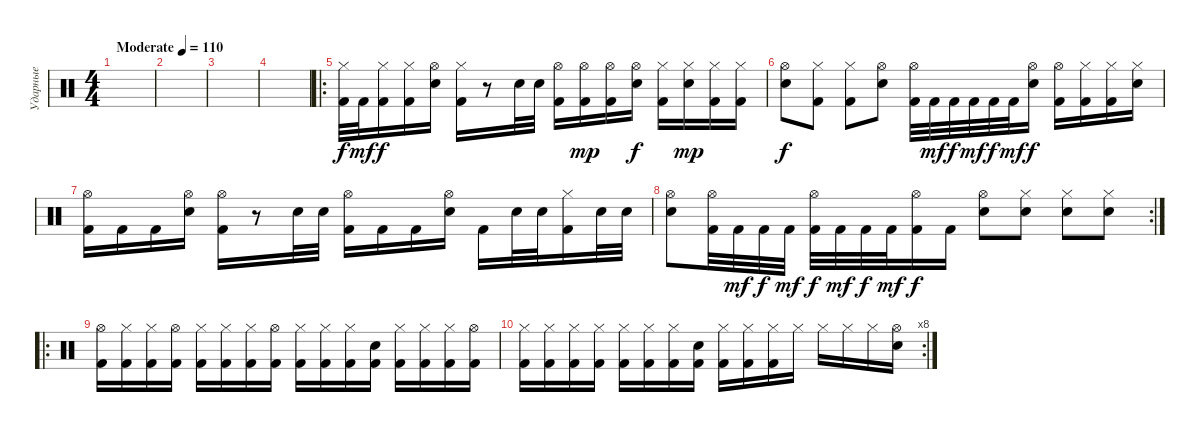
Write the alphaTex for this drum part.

\track ("Ударные" "Ударные") {instrument percussion}
\staff {score}
\articulation defaults
\ts (4 4)
\tempo (110 "Moderate")
\clef neutral
\ks c
|
|
|
|
\ro
("Hi-Hat (closed)" "Kick (hit) 2").32 "Kick (hit) 2".32{dy mf} ("Hi-Hat (closed)" "Kick (hit) 2").16{dy f} ("Hi-Hat (closed)" "Kick (hit) 2").16 ("Hi-Hat (open)" "Electric Snare (hit)").16 ("Hi-Hat (closed)" "Kick (hit) 2").16 r.8 "Electric Snare (hit)".32 "Electric Snare (hit)".32 ("Hi-Hat (open)" "Kick (hit) 2").16 ("Hi-Hat (open)" "Kick (hit) 2").16{dy mp} ("Hi-Hat (open)" "Kick (hit) 2").16 ("Hi-Hat (open)" "Electric Snare (hit)").16{dy f} ("Hi-Hat (closed)" "Kick (hit) 2").16 ("Hi-Hat (closed)" "Electric Snare (hit)").16{dy mp} ("Hi-Hat (closed)" "Kick (hit) 2").16 ("Hi-Hat (closed)" "Kick (hit) 2").16 |
("Hi-Hat (open)" "Electric Snare (hit)").8{dy f} ("Hi-Hat (closed)" "Kick (hit) 2").8 ("Hi-Hat (closed)" "Kick (hit) 2").8 ("Hi-Hat (open)" "Electric Snare (hit)").8 ("Hi-Hat (open)" "Kick (hit) 2").32 "Kick (hit) 2".32{dy mf} "Kick (hit) 2".32{dy f} "Kick (hit) 2".32{dy mf} "Kick (hit) 2".32{dy f} "Kick (hit) 2".32{dy mf} ("Hi-Hat (open)" "Electric Snare (hit)").16{dy f} ("Hi-Hat (open)" "Kick (hit) 2").16 ("Hi-Hat (closed)" "Kick (hit) 2").16 ("Hi-Hat (closed)" "Kick (hit) 2").16 ("Hi-Hat (closed)" "Electric Snare (hit)").16 |
("Hi-Hat (open)" "Kick (hit) 2").16 "Kick (hit) 2".16 "Kick (hit) 2".16 ("Hi-Hat (open)" "Electric Snare (hit)").16 ("Hi-Hat (open)" "Kick (hit) 2").16 r.8 "Electric Snare (hit)".32 "Electric Snare (hit)".32 ("Hi-Hat (open)" "Kick (hit) 2").16 "Kick (hit) 2".16 "Kick (hit) 2".16 ("Hi-Hat (open)" "Electric Snare (hit)").16 "Kick (hit) 2".16 "Electric Snare (hit)".32 "Electric Snare (hit)".32 ("Hi-Hat (closed)" "Kick (hit) 2").16 "Electric Snare (hit)".32 "Electric Snare (hit)".32 |
\rc 2
("Hi-Hat (open)" "Electric Snare (hit)").8 ("Hi-Hat (open)" "Kick (hit) 2").32 "Kick (hit) 2".32{dy mf} "Kick (hit) 2".32{dy f} "Kick (hit) 2".32{dy mf} ("Hi-Hat (open)" "Kick (hit) 2").32{dy f} "Kick (hit) 2".32{dy mf} "Kick (hit) 2".32{dy f} "Kick (hit) 2".32{dy mf} ("Hi-Hat (open)" "Kick (hit) 2").16{dy f} "Kick (hit) 2".16 ("Hi-Hat (open)" "Electric Snare (hit)").8 ("Hi-Hat (closed)" "Electric Snare (hit)").8 ("Hi-Hat (closed)" "Electric Snare (hit)").8 ("Hi-Hat (closed)" "Electric Snare (hit)").8 |
\ro
("Hi-Hat (open)" "Kick (hit) 2").16 ("Hi-Hat (closed)" "Kick (hit) 2").16 ("Hi-Hat (closed)" "Kick (hit) 2").16 ("Hi-Hat (open)" "Kick (hit) 2").16 ("Hi-Hat (closed)" "Kick (hit) 2").16 ("Hi-Hat (closed)" "Kick (hit) 2").16 ("Hi-Hat (closed)" "Kick (hit) 2").16 ("Hi-Hat (open)" "Kick (hit) 2").16 ("Hi-Hat (closed)" "Kick (hit) 2").16 ("Hi-Hat (closed)" "Kick (hit) 2").16 ("Hi-Hat (closed)" "Kick (hit) 2").16 ("Electric Snare (hit)" "Kick (hit) 2").16 ("Hi-Hat (closed)" "Kick (hit) 2").16 ("Hi-Hat (closed)" "Kick (hit) 2").16 ("Hi-Hat (closed)" "Kick (hit) 2").16 ("Hi-Hat (open)" "Kick (hit) 2").16 |
\rc 8
("Hi-Hat (closed)" "Kick (hit) 2").16 ("Hi-Hat (closed)" "Kick (hit) 2").16 ("Hi-Hat (closed)" "Kick (hit) 2").16 ("Hi-Hat (closed)" "Kick (hit) 2").16 ("Hi-Hat (closed)" "Kick (hit) 2").16 ("Hi-Hat (closed)" "Kick (hit) 2").16 ("Hi-Hat (closed)" "Kick (hit) 2").16 ("Electric Snare (hit)" "Kick (hit) 2").16 ("Hi-Hat (closed)" "Kick (hit) 2").16 ("Hi-Hat (closed)" "Kick (hit) 2").16 ("Hi-Hat (closed)" "Kick (hit) 2").16 "Hi-Hat (closed)".16 "Hi-Hat (closed)".16 "Hi-Hat (closed)".16 "Hi-Hat (closed)".16 ("Hi-Hat (open)" "Electric Snare (hit)").16
